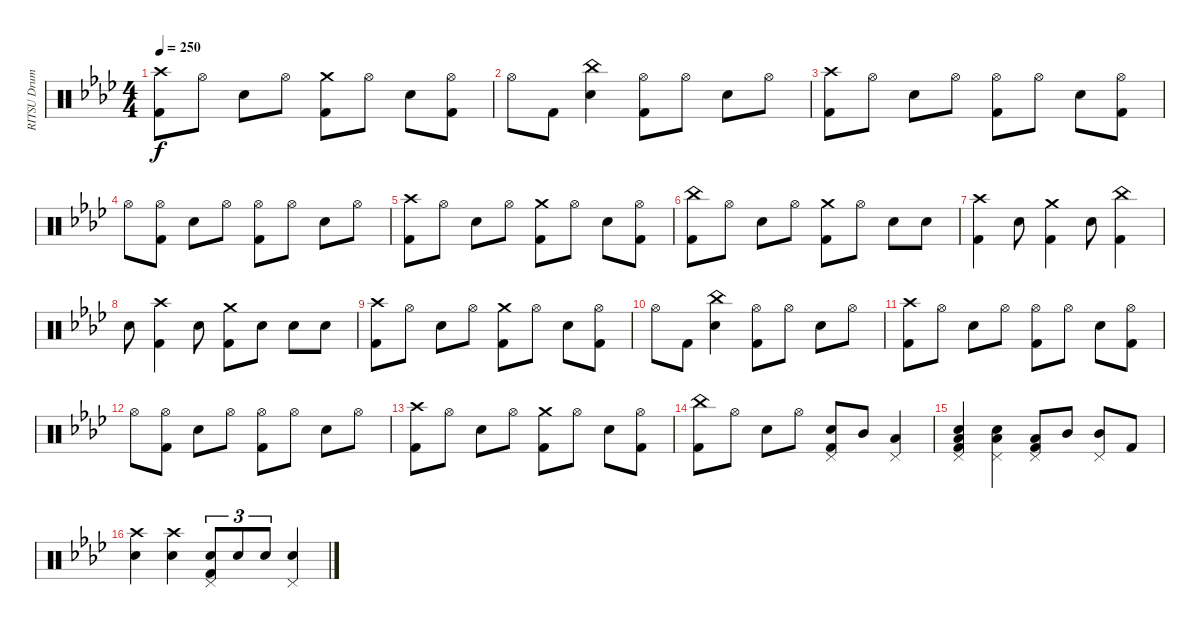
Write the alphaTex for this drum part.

\track ("RITSU Drums" "RITSU Drum") {instrument percussion}
\staff {score}
\articulation defaults
\ts (4 4)
\tempo 250
\clef neutral
\ks ab
("Crash high (hit)" "Kick (hit) 2").8{dy f} "Hi-Hat (open)".8 "Electric Snare (hit)".8 "Hi-Hat (open)".8 ("Crash medium (hit)" "Kick (hit) 2").8 "Hi-Hat (open)".8 "Electric Snare (hit)".8 ("Hi-Hat (open)" "Kick (hit) 2").8 |
"Hi-Hat (open)".8 "Kick (hit) 2".8 ("China (hit)" "Electric Snare (hit)").4 ("Hi-Hat (open)" "Kick (hit) 2").8 "Hi-Hat (open)".8 "Electric Snare (hit)".8 "Hi-Hat (open)".8 |
("Crash high (hit)" "Kick (hit) 2").8 "Hi-Hat (open)".8 "Electric Snare (hit)".8 "Hi-Hat (open)".8 ("Hi-Hat (open)" "Kick (hit) 2").8 "Hi-Hat (open)".8 "Electric Snare (hit)".8 ("Hi-Hat (open)" "Kick (hit) 2").8 |
"Hi-Hat (open)".8 ("Hi-Hat (open)" "Kick (hit) 2").8 "Electric Snare (hit)".8 "Hi-Hat (open)".8 ("Hi-Hat (open)" "Kick (hit) 2").8 "Hi-Hat (open)".8 "Electric Snare (hit)".8 "Hi-Hat (open)".8 |
("Crash high (hit)" "Kick (hit) 2").8 "Hi-Hat (open)".8 "Electric Snare (hit)".8 "Hi-Hat (open)".8 ("Crash medium (hit)" "Kick (hit) 2").8 "Hi-Hat (open)".8 "Electric Snare (hit)".8 ("Hi-Hat (open)" "Kick (hit) 2").8 |
("China (hit)" "Kick (hit) 2").8 "Hi-Hat (open)".8 "Electric Snare (hit)".8 "Hi-Hat (open)".8 ("Crash medium (hit)" "Kick (hit) 2").8 "Hi-Hat (open)".8 "Electric Snare (hit)".8 "Electric Snare (hit)".8 |
("Crash high (hit)" "Kick (hit) 2").4 "Electric Snare (hit)".8 ("Crash medium (hit)" "Kick (hit) 2").4 "Electric Snare (hit)".8 ("China (hit)" "Kick (hit) 2").4 |
"Electric Snare (hit)".8 ("Crash high (hit)" "Kick (hit) 2").4 "Electric Snare (hit)".8 ("Crash medium (hit)" "Kick (hit) 2").8 "Electric Snare (hit)".8 "Electric Snare (hit)".8 "Electric Snare (hit)".8 |
("Crash high (hit)" "Kick (hit) 2").8 "Hi-Hat (open)".8 "Electric Snare (hit)".8 "Hi-Hat (open)".8 ("Crash medium (hit)" "Kick (hit) 2").8 "Hi-Hat (open)".8 "Electric Snare (hit)".8 ("Hi-Hat (open)" "Kick (hit) 2").8 |
"Hi-Hat (open)".8 "Kick (hit) 2".8 ("China (hit)" "Electric Snare (hit)").4 ("Hi-Hat (open)" "Kick (hit) 2").8 "Hi-Hat (open)".8 "Electric Snare (hit)".8 "Hi-Hat (open)".8 |
("Crash high (hit)" "Kick (hit) 2").8 "Hi-Hat (open)".8 "Electric Snare (hit)".8 "Hi-Hat (open)".8 ("Hi-Hat (open)" "Kick (hit) 2").8 "Hi-Hat (open)".8 "Electric Snare (hit)".8 ("Hi-Hat (open)" "Kick (hit) 2").8 |
"Hi-Hat (open)".8 ("Hi-Hat (open)" "Kick (hit) 2").8 "Electric Snare (hit)".8 "Hi-Hat (open)".8 ("Hi-Hat (open)" "Kick (hit) 2").8 "Hi-Hat (open)".8 "Electric Snare (hit)".8 "Hi-Hat (open)".8 |
("Crash high (hit)" "Kick (hit) 2").8 "Hi-Hat (open)".8 "Electric Snare (hit)".8 "Hi-Hat (open)".8 ("Crash medium (hit)" "Kick (hit) 2").8 "Hi-Hat (open)".8 "Electric Snare (hit)".8 ("Hi-Hat (open)" "Kick (hit) 2").8 |
("China (hit)" "Kick (hit) 2").8 "Hi-Hat (open)".8 "Electric Snare (hit)".8 "Hi-Hat (open)".8 ("Pedal Hi-Hat (hit)" "Electric Snare (hit)" "Kick (hit) 2").8 "Mid Tom (hit)".8 ("Pedal Hi-Hat (hit)" "Low Floor Tom (hit)").4 |
("Pedal Hi-Hat (hit)" "Electric Snare (hit)" "Low Floor Tom (hit)" "Kick (hit) 2").4 ("Pedal Hi-Hat (hit)" "Electric Snare (hit)" "Low Floor Tom (hit)").4 ("Pedal Hi-Hat (hit)" "Low Floor Tom (hit)" "Kick (hit) 2").8 "Mid Tom (hit)".8 ("Pedal Hi-Hat (hit)" "Mid Tom (hit)").8 "Kick (hit) 2".8 |
("Crash high (hit)" "Electric Snare (hit)").4 ("Crash high (hit)" "Electric Snare (hit)").4 ("Pedal Hi-Hat (hit)" "Electric Snare (hit)" "Kick (hit) 2").8{tu (3 2)} "Electric Snare (hit)".8{tu (3 2)} "Electric Snare (hit)".8{tu (3 2)} ("Pedal Hi-Hat (hit)" "Electric Snare (hit)").4
